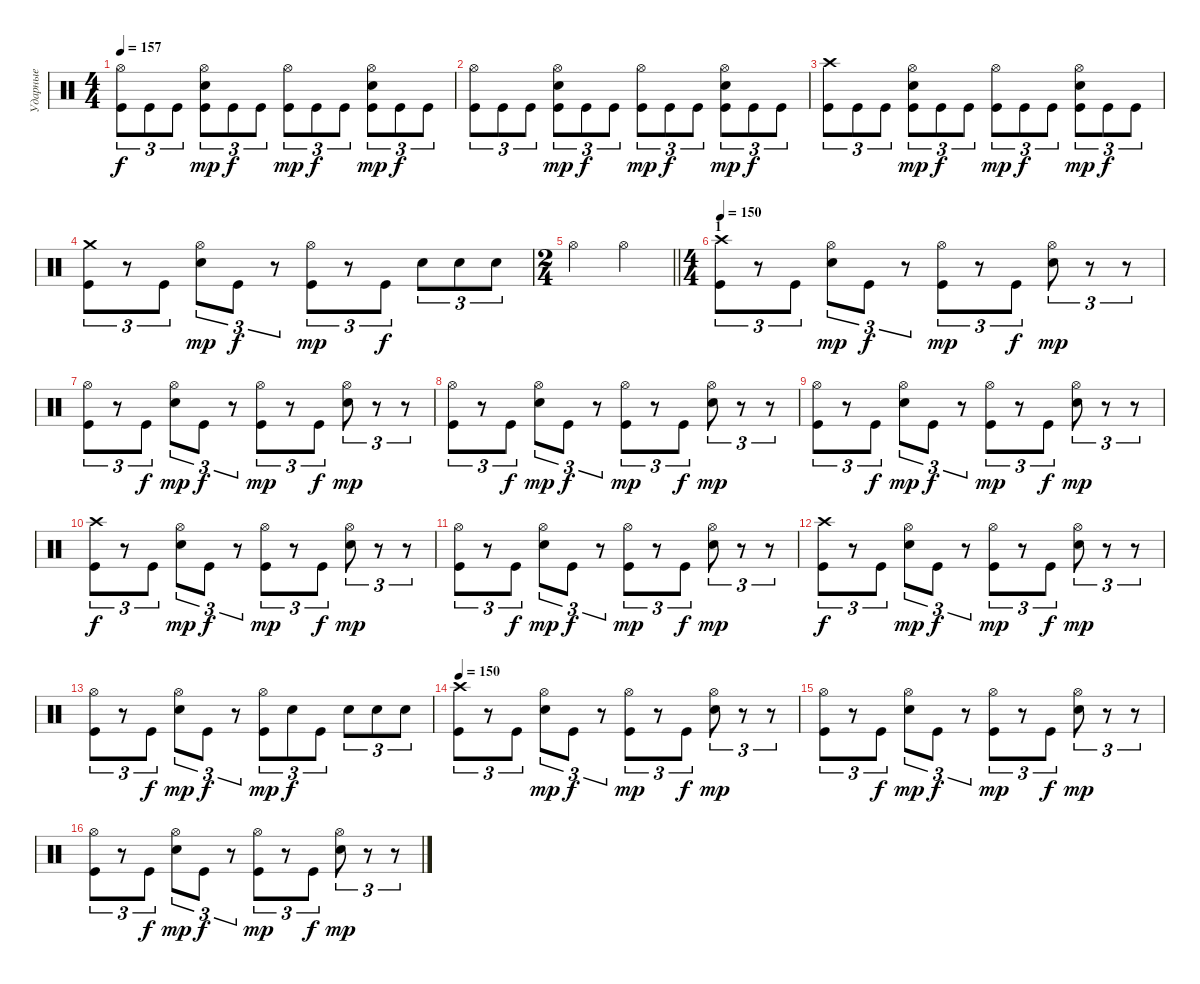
\track ("Ударные" "Ударные") {instrument percussion}
\staff {score}
\articulation defaults
\ts (4 4)
\tempo 157
\clef neutral
\ks c
("Hi-Hat (open)" "Kick (hit)").8{tu (3 2) dy f} "Kick (hit)".8{tu (3 2)} "Kick (hit)".8{tu (3 2)} ("Hi-Hat (open)" "Snare (hit) 2" "Kick (hit)").8{tu (3 2) dy mp} "Kick (hit)".8{tu (3 2) dy f} "Kick (hit)".8{tu (3 2)} ("Hi-Hat (open)" "Kick (hit)").8{tu (3 2) dy mp} "Kick (hit)".8{tu (3 2) dy f} "Kick (hit)".8{tu (3 2)} ("Hi-Hat (open)" "Snare (hit) 2" "Kick (hit)").8{tu (3 2) dy mp} "Kick (hit)".8{tu (3 2) dy f} "Kick (hit)".8{tu (3 2)} |
("Hi-Hat (open)" "Kick (hit)").8{tu (3 2)} "Kick (hit)".8{tu (3 2)} "Kick (hit)".8{tu (3 2)} ("Hi-Hat (open)" "Snare (hit) 2" "Kick (hit)").8{tu (3 2) dy mp} "Kick (hit)".8{tu (3 2) dy f} "Kick (hit)".8{tu (3 2)} ("Hi-Hat (open)" "Kick (hit)").8{tu (3 2) dy mp} "Kick (hit)".8{tu (3 2) dy f} "Kick (hit)".8{tu (3 2)} ("Hi-Hat (open)" "Snare (hit) 2" "Kick (hit)").8{tu (3 2) dy mp} "Kick (hit)".8{tu (3 2) dy f} "Kick (hit)".8{tu (3 2)} |
("Crash high (hit)" "Kick (hit)").8{tu (3 2)} "Kick (hit)".8{tu (3 2)} "Kick (hit)".8{tu (3 2)} ("Hi-Hat (open)" "Snare (hit) 2" "Kick (hit)").8{tu (3 2) dy mp} "Kick (hit)".8{tu (3 2) dy f} "Kick (hit)".8{tu (3 2)} ("Hi-Hat (open)" "Kick (hit)").8{tu (3 2) dy mp} "Kick (hit)".8{tu (3 2) dy f} "Kick (hit)".8{tu (3 2)} ("Hi-Hat (open)" "Snare (hit) 2" "Kick (hit)").8{tu (3 2) dy mp} "Kick (hit)".8{tu (3 2) dy f} "Kick (hit)".8{tu (3 2)} |
("Crash medium (hit)" "Kick (hit)").8{tu (3 2)} r.8{tu (3 2)} "Kick (hit)".8{tu (3 2)} ("Hi-Hat (open)" "Snare (hit) 2").8{tu (3 2) dy mp} "Kick (hit)".8{tu (3 2) dy f} r.8{tu (3 2)} ("Hi-Hat (open)" "Kick (hit)").8{tu (3 2) dy mp} r.8{tu (3 2)} "Kick (hit)".8{tu (3 2) dy f} "Snare (hit) 2".8{tu (3 2)} "Snare (hit) 2".8{tu (3 2)} "Snare (hit) 2".8{tu (3 2)} |
\ts (2 4)
\barLineRight lightlight "Hi-Hat (open)".4 "Hi-Hat (open)".4
|
\ts (4 4)
\section ("" "1")
\tempo 150
("Crash high (hit)" "Kick (hit)").8{tu (3 2)} r.8{tu (3 2)} "Kick (hit)".8{tu (3 2)} ("Hi-Hat (open)" "Snare (hit) 2").8{tu (3 2) dy mp} "Kick (hit)".8{tu (3 2) dy f} r.8{tu (3 2)} ("Hi-Hat (open)" "Kick (hit)").8{tu (3 2) dy mp} r.8{tu (3 2)} "Kick (hit)".8{tu (3 2) dy f} ("Hi-Hat (open)" "Snare (hit) 2").8{tu (3 2) dy mp} r.8{tu (3 2)} r.8{tu (3 2)} |
("Hi-Hat (open)" "Kick (hit)").8{tu (3 2)} r.8{tu (3 2)} "Kick (hit)".8{tu (3 2) dy f} ("Hi-Hat (open)" "Snare (hit) 2").8{tu (3 2) dy mp} "Kick (hit)".8{tu (3 2) dy f} r.8{tu (3 2)} ("Hi-Hat (open)" "Kick (hit)").8{tu (3 2) dy mp} r.8{tu (3 2)} "Kick (hit)".8{tu (3 2) dy f} ("Hi-Hat (open)" "Snare (hit) 2").8{tu (3 2) dy mp} r.8{tu (3 2)} r.8{tu (3 2)} |
("Hi-Hat (open)" "Kick (hit)").8{tu (3 2)} r.8{tu (3 2)} "Kick (hit)".8{tu (3 2) dy f} ("Hi-Hat (open)" "Snare (hit) 2").8{tu (3 2) dy mp} "Kick (hit)".8{tu (3 2) dy f} r.8{tu (3 2)} ("Hi-Hat (open)" "Kick (hit)").8{tu (3 2) dy mp} r.8{tu (3 2)} "Kick (hit)".8{tu (3 2) dy f} ("Hi-Hat (open)" "Snare (hit) 2").8{tu (3 2) dy mp} r.8{tu (3 2)} r.8{tu (3 2)} |
("Hi-Hat (open)" "Kick (hit)").8{tu (3 2)} r.8{tu (3 2)} "Kick (hit)".8{tu (3 2) dy f} ("Hi-Hat (open)" "Snare (hit) 2").8{tu (3 2) dy mp} "Kick (hit)".8{tu (3 2) dy f} r.8{tu (3 2)} ("Hi-Hat (open)" "Kick (hit)").8{tu (3 2) dy mp} r.8{tu (3 2)} "Kick (hit)".8{tu (3 2) dy f} ("Hi-Hat (open)" "Snare (hit) 2").8{tu (3 2) dy mp} r.8{tu (3 2)} r.8{tu (3 2)} |
("Crash high (hit)" "Kick (hit)").8{tu (3 2) dy f} r.8{tu (3 2)} "Kick (hit)".8{tu (3 2)} ("Hi-Hat (open)" "Snare (hit) 2").8{tu (3 2) dy mp} "Kick (hit)".8{tu (3 2) dy f} r.8{tu (3 2)} ("Hi-Hat (open)" "Kick (hit)").8{tu (3 2) dy mp} r.8{tu (3 2)} "Kick (hit)".8{tu (3 2) dy f} ("Hi-Hat (open)" "Snare (hit) 2").8{tu (3 2) dy mp} r.8{tu (3 2)} r.8{tu (3 2)} |
("Hi-Hat (open)" "Kick (hit)").8{tu (3 2)} r.8{tu (3 2)} "Kick (hit)".8{tu (3 2) dy f} ("Hi-Hat (open)" "Snare (hit) 2").8{tu (3 2) dy mp} "Kick (hit)".8{tu (3 2) dy f} r.8{tu (3 2)} ("Hi-Hat (open)" "Kick (hit)").8{tu (3 2) dy mp} r.8{tu (3 2)} "Kick (hit)".8{tu (3 2) dy f} ("Hi-Hat (open)" "Snare (hit) 2").8{tu (3 2) dy mp} r.8{tu (3 2)} r.8{tu (3 2)} |
("Crash high (hit)" "Kick (hit)").8{tu (3 2) dy f} r.8{tu (3 2)} "Kick (hit)".8{tu (3 2)} ("Hi-Hat (open)" "Snare (hit) 2").8{tu (3 2) dy mp} "Kick (hit)".8{tu (3 2) dy f} r.8{tu (3 2)} ("Hi-Hat (open)" "Kick (hit)").8{tu (3 2) dy mp} r.8{tu (3 2)} "Kick (hit)".8{tu (3 2) dy f} ("Hi-Hat (open)" "Snare (hit) 2").8{tu (3 2) dy mp} r.8{tu (3 2)} r.8{tu (3 2)} |
("Hi-Hat (open)" "Kick (hit)").8{tu (3 2)} r.8{tu (3 2)} "Kick (hit)".8{tu (3 2) dy f} ("Hi-Hat (open)" "Snare (hit) 2").8{tu (3 2) dy mp} "Kick (hit)".8{tu (3 2) dy f} r.8{tu (3 2)} ("Hi-Hat (open)" "Kick (hit)").8{tu (3 2) dy mp} "Snare (hit) 2".8{tu (3 2) dy f} "Kick (hit)".8{tu (3 2)} "Snare (hit) 2".8{tu (3 2)} "Snare (hit) 2".8{tu (3 2)} "Snare (hit) 2".8{tu (3 2)} |
\tempo 150
("Crash high (hit)" "Kick (hit)").8{tu (3 2)} r.8{tu (3 2)} "Kick (hit)".8{tu (3 2)} ("Hi-Hat (open)" "Snare (hit) 2").8{tu (3 2) dy mp} "Kick (hit)".8{tu (3 2) dy f} r.8{tu (3 2)} ("Hi-Hat (open)" "Kick (hit)").8{tu (3 2) dy mp} r.8{tu (3 2)} "Kick (hit)".8{tu (3 2) dy f} ("Hi-Hat (open)" "Snare (hit) 2").8{tu (3 2) dy mp} r.8{tu (3 2)} r.8{tu (3 2)} |
("Hi-Hat (open)" "Kick (hit)").8{tu (3 2)} r.8{tu (3 2)} "Kick (hit)".8{tu (3 2) dy f} ("Hi-Hat (open)" "Snare (hit) 2").8{tu (3 2) dy mp} "Kick (hit)".8{tu (3 2) dy f} r.8{tu (3 2)} ("Hi-Hat (open)" "Kick (hit)").8{tu (3 2) dy mp} r.8{tu (3 2)} "Kick (hit)".8{tu (3 2) dy f} ("Hi-Hat (open)" "Snare (hit) 2").8{tu (3 2) dy mp} r.8{tu (3 2)} r.8{tu (3 2)} |
("Hi-Hat (open)" "Kick (hit)").8{tu (3 2)} r.8{tu (3 2)} "Kick (hit)".8{tu (3 2) dy f} ("Hi-Hat (open)" "Snare (hit) 2").8{tu (3 2) dy mp} "Kick (hit)".8{tu (3 2) dy f} r.8{tu (3 2)} ("Hi-Hat (open)" "Kick (hit)").8{tu (3 2) dy mp} r.8{tu (3 2)} "Kick (hit)".8{tu (3 2) dy f} ("Hi-Hat (open)" "Snare (hit) 2").8{tu (3 2) dy mp} r.8{tu (3 2)} r.8{tu (3 2)}
